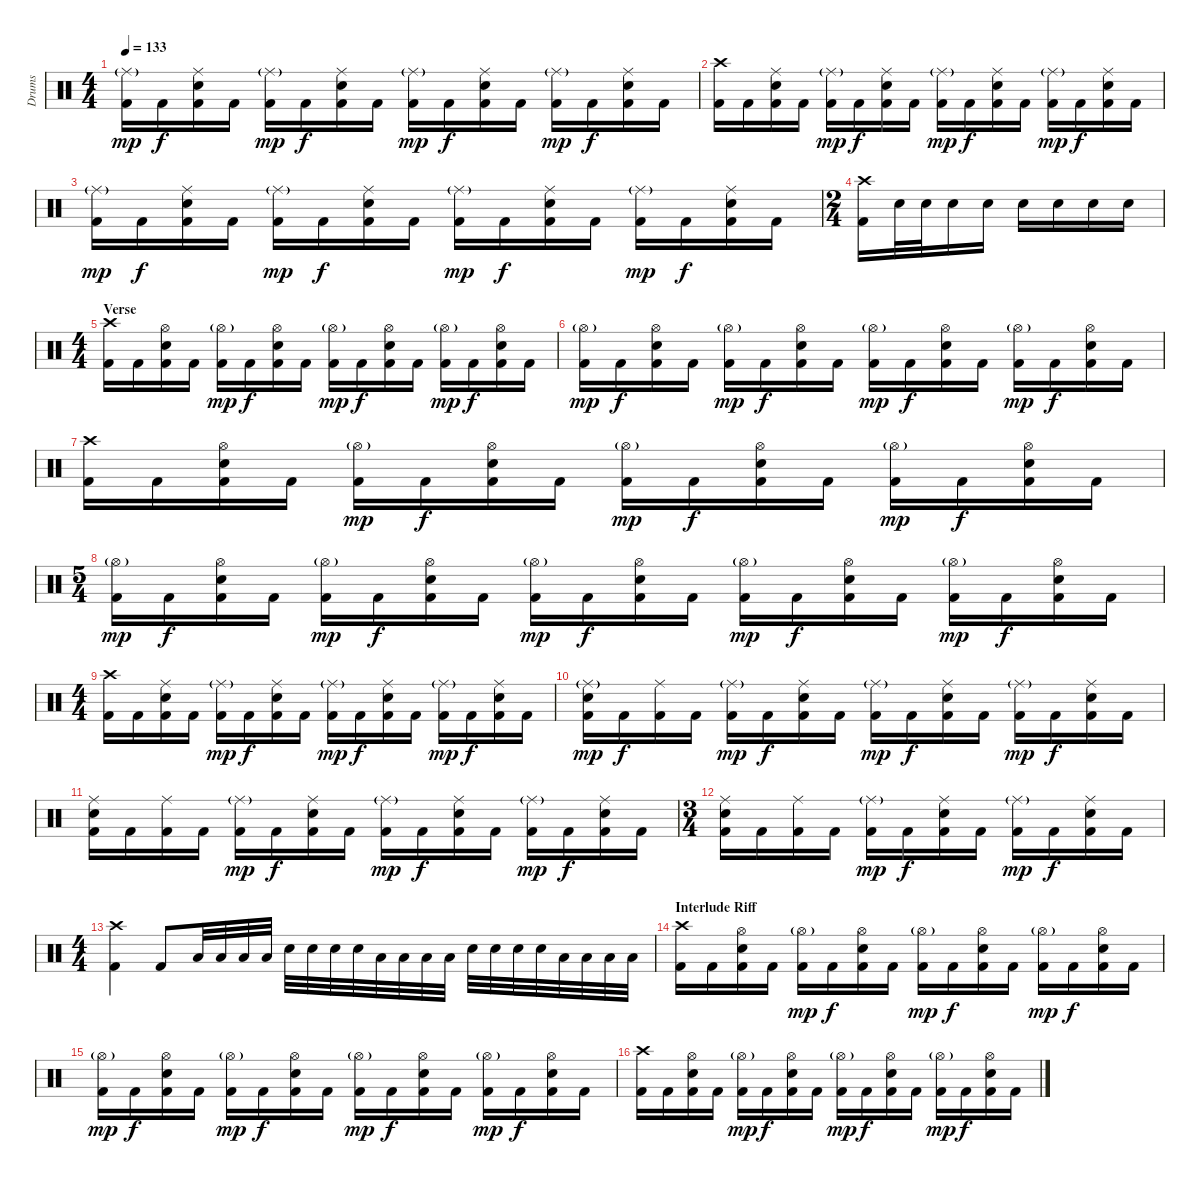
\track ("Drums" "Drums") {instrument percussion}
\staff {score}
\articulation defaults
\ts (4 4)
\tempo 133
\clef neutral
\ks c
("Ride (middle)"{g} "Kick (hit) 2").16{dy mp} "Kick (hit) 2".16{dy f} ("Ride (middle)" "Electric Snare (hit)" "Kick (hit) 2").16 "Kick (hit) 2".16 ("Ride (middle)"{g} "Kick (hit) 2").16{dy mp} "Kick (hit) 2".16{dy f} ("Ride (middle)" "Electric Snare (hit)" "Kick (hit) 2").16 "Kick (hit) 2".16 ("Ride (middle)"{g} "Kick (hit) 2").16{dy mp} "Kick (hit) 2".16{dy f} ("Ride (middle)" "Electric Snare (hit)" "Kick (hit) 2").16 "Kick (hit) 2".16 ("Ride (middle)"{g} "Kick (hit) 2").16{dy mp} "Kick (hit) 2".16{dy f} ("Ride (middle)" "Electric Snare (hit)" "Kick (hit) 2").16 "Kick (hit) 2".16 |
("Crash high (hit)" "Kick (hit) 2").16 "Kick (hit) 2".16 ("Ride (middle)" "Electric Snare (hit)" "Kick (hit) 2").16 "Kick (hit) 2".16 ("Ride (middle)"{g} "Kick (hit) 2").16{dy mp} "Kick (hit) 2".16{dy f} ("Ride (middle)" "Electric Snare (hit)" "Kick (hit) 2").16 "Kick (hit) 2".16 ("Ride (middle)"{g} "Kick (hit) 2").16{dy mp} "Kick (hit) 2".16{dy f} ("Ride (middle)" "Electric Snare (hit)" "Kick (hit) 2").16 "Kick (hit) 2".16 ("Ride (middle)"{g} "Kick (hit) 2").16{dy mp} "Kick (hit) 2".16{dy f} ("Ride (middle)" "Electric Snare (hit)" "Kick (hit) 2").16 "Kick (hit) 2".16 |
("Ride (middle)"{g} "Kick (hit) 2").16{dy mp} "Kick (hit) 2".16{dy f} ("Ride (middle)" "Electric Snare (hit)" "Kick (hit) 2").16 "Kick (hit) 2".16 ("Ride (middle)"{g} "Kick (hit) 2").16{dy mp} "Kick (hit) 2".16{dy f} ("Ride (middle)" "Electric Snare (hit)" "Kick (hit) 2").16 "Kick (hit) 2".16 ("Ride (middle)"{g} "Kick (hit) 2").16{dy mp} "Kick (hit) 2".16{dy f} ("Ride (middle)" "Electric Snare (hit)" "Kick (hit) 2").16 "Kick (hit) 2".16 ("Ride (middle)"{g} "Kick (hit) 2").16{dy mp} "Kick (hit) 2".16{dy f} ("Ride (middle)" "Electric Snare (hit)" "Kick (hit) 2").16 "Kick (hit) 2".16 |
\ts (2 4)
("Crash high (hit)" "Kick (hit) 2").16 "Electric Snare (hit)".32 "Electric Snare (hit)".32 "Electric Snare (hit)".16 "Electric Snare (hit)".16 "Electric Snare (hit)".16 "Electric Snare (hit)".16 "Electric Snare (hit)".16 "Electric Snare (hit)".16 |
\ts (4 4)
\section ("" "Verse")
("Crash high (hit)" "Kick (hit) 2").16 "Kick (hit) 2".16 ("Hi-Hat (open)" "Electric Snare (hit)" "Kick (hit) 2").16 "Kick (hit) 2".16 ("Hi-Hat (open)"{g} "Kick (hit) 2").16{dy mp} "Kick (hit) 2".16{dy f} ("Hi-Hat (open)" "Electric Snare (hit)" "Kick (hit) 2").16 "Kick (hit) 2".16 ("Hi-Hat (open)"{g} "Kick (hit) 2").16{dy mp} "Kick (hit) 2".16{dy f} ("Hi-Hat (open)" "Electric Snare (hit)" "Kick (hit) 2").16 "Kick (hit) 2".16 ("Hi-Hat (open)"{g} "Kick (hit) 2").16{dy mp} "Kick (hit) 2".16{dy f} ("Hi-Hat (open)" "Electric Snare (hit)" "Kick (hit) 2").16 "Kick (hit) 2".16 |
("Hi-Hat (open)"{g} "Kick (hit) 2").16{dy mp} "Kick (hit) 2".16{dy f} ("Hi-Hat (open)" "Electric Snare (hit)" "Kick (hit) 2").16 "Kick (hit) 2".16 ("Hi-Hat (open)"{g} "Kick (hit) 2").16{dy mp} "Kick (hit) 2".16{dy f} ("Hi-Hat (open)" "Electric Snare (hit)" "Kick (hit) 2").16 "Kick (hit) 2".16 ("Hi-Hat (open)"{g} "Kick (hit) 2").16{dy mp} "Kick (hit) 2".16{dy f} ("Hi-Hat (open)" "Electric Snare (hit)" "Kick (hit) 2").16 "Kick (hit) 2".16 ("Hi-Hat (open)"{g} "Kick (hit) 2").16{dy mp} "Kick (hit) 2".16{dy f} ("Hi-Hat (open)" "Electric Snare (hit)" "Kick (hit) 2").16 "Kick (hit) 2".16 |
("Crash high (hit)" "Kick (hit) 2").16 "Kick (hit) 2".16 ("Hi-Hat (open)" "Electric Snare (hit)" "Kick (hit) 2").16 "Kick (hit) 2".16 ("Hi-Hat (open)"{g} "Kick (hit) 2").16{dy mp} "Kick (hit) 2".16{dy f} ("Hi-Hat (open)" "Electric Snare (hit)" "Kick (hit) 2").16 "Kick (hit) 2".16 ("Hi-Hat (open)"{g} "Kick (hit) 2").16{dy mp} "Kick (hit) 2".16{dy f} ("Hi-Hat (open)" "Electric Snare (hit)" "Kick (hit) 2").16 "Kick (hit) 2".16 ("Hi-Hat (open)"{g} "Kick (hit) 2").16{dy mp} "Kick (hit) 2".16{dy f} ("Hi-Hat (open)" "Electric Snare (hit)" "Kick (hit) 2").16 "Kick (hit) 2".16 |
\ts (5 4)
("Hi-Hat (open)"{g} "Kick (hit) 2").16{dy mp} "Kick (hit) 2".16{dy f} ("Hi-Hat (open)" "Electric Snare (hit)" "Kick (hit) 2").16 "Kick (hit) 2".16 ("Hi-Hat (open)"{g} "Kick (hit) 2").16{dy mp} "Kick (hit) 2".16{dy f} ("Hi-Hat (open)" "Electric Snare (hit)" "Kick (hit) 2").16 "Kick (hit) 2".16 ("Hi-Hat (open)"{g} "Kick (hit) 2").16{dy mp} "Kick (hit) 2".16{dy f} ("Hi-Hat (open)" "Electric Snare (hit)" "Kick (hit) 2").16 "Kick (hit) 2".16 ("Hi-Hat (open)"{g} "Kick (hit) 2").16{dy mp} "Kick (hit) 2".16{dy f} ("Hi-Hat (open)" "Electric Snare (hit)" "Kick (hit) 2").16 "Kick (hit) 2".16 ("Hi-Hat (open)"{g} "Kick (hit) 2").16{dy mp} "Kick (hit) 2".16{dy f} ("Hi-Hat (open)" "Electric Snare (hit)" "Kick (hit) 2").16 "Kick (hit) 2".16 |
\ts (4 4)
("Crash high (hit)" "Kick (hit) 2").16 "Kick (hit) 2".16 ("Ride (middle)" "Electric Snare (hit)" "Kick (hit) 2").16 "Kick (hit) 2".16 ("Ride (middle)"{g} "Kick (hit) 2").16{dy mp} "Kick (hit) 2".16{dy f} ("Ride (middle)" "Electric Snare (hit)" "Kick (hit) 2").16 "Kick (hit) 2".16 ("Ride (middle)"{g} "Kick (hit) 2").16{dy mp} "Kick (hit) 2".16{dy f} ("Ride (middle)" "Electric Snare (hit)" "Kick (hit) 2").16 "Kick (hit) 2".16 ("Ride (middle)"{g} "Kick (hit) 2").16{dy mp} "Kick (hit) 2".16{dy f} ("Ride (middle)" "Electric Snare (hit)" "Kick (hit) 2").16 "Kick (hit) 2".16 |
("Ride (middle)"{g} "Electric Snare (hit)" "Kick (hit) 2").16{dy mp} "Kick (hit) 2".16{dy f} ("Ride (middle)" "Kick (hit) 2").16 "Kick (hit) 2".16 ("Ride (middle)"{g} "Kick (hit) 2").16{dy mp} "Kick (hit) 2".16{dy f} ("Ride (middle)" "Electric Snare (hit)" "Kick (hit) 2").16 "Kick (hit) 2".16 ("Ride (middle)"{g} "Kick (hit) 2").16{dy mp} "Kick (hit) 2".16{dy f} ("Ride (middle)" "Electric Snare (hit)" "Kick (hit) 2").16 "Kick (hit) 2".16 ("Ride (middle)"{g} "Kick (hit) 2").16{dy mp} "Kick (hit) 2".16{dy f} ("Ride (middle)" "Electric Snare (hit)" "Kick (hit) 2").16 "Kick (hit) 2".16 |
("Ride (middle)" "Electric Snare (hit)" "Kick (hit) 2").16 "Kick (hit) 2".16 ("Ride (middle)" "Kick (hit) 2").16 "Kick (hit) 2".16 ("Ride (middle)"{g} "Kick (hit) 2").16{dy mp} "Kick (hit) 2".16{dy f} ("Ride (middle)" "Electric Snare (hit)" "Kick (hit) 2").16 "Kick (hit) 2".16 ("Ride (middle)"{g} "Kick (hit) 2").16{dy mp} "Kick (hit) 2".16{dy f} ("Ride (middle)" "Electric Snare (hit)" "Kick (hit) 2").16 "Kick (hit) 2".16 ("Ride (middle)"{g} "Kick (hit) 2").16{dy mp} "Kick (hit) 2".16{dy f} ("Ride (middle)" "Electric Snare (hit)" "Kick (hit) 2").16 "Kick (hit) 2".16 |
\ts (3 4)
("Ride (middle)" "Electric Snare (hit)" "Kick (hit) 2").16 "Kick (hit) 2".16 ("Ride (middle)" "Kick (hit) 2").16 "Kick (hit) 2".16 ("Ride (middle)"{g} "Kick (hit) 2").16{dy mp} "Kick (hit) 2".16{dy f} ("Ride (middle)" "Electric Snare (hit)" "Kick (hit) 2").16 "Kick (hit) 2".16 ("Ride (middle)"{g} "Kick (hit) 2").16{dy mp} "Kick (hit) 2".16{dy f} ("Ride (middle)" "Electric Snare (hit)" "Kick (hit) 2").16 "Kick (hit) 2".16 |
\ts (4 4)
("Crash high (hit)" "Kick (hit) 2").4 "Kick (hit) 2".8 "Low Tom (hit)".32 "Low Tom (hit)".32 "Low Tom (hit)".32 "Low Tom (hit)".32 "Electric Snare (hit)".32 "Electric Snare (hit)".32 "Electric Snare (hit)".32 "Electric Snare (hit)".32 "Low Tom (hit)".32 "Low Tom (hit)".32 "Low Tom (hit)".32 "Low Tom (hit)".32 "Electric Snare (hit)".32 "Electric Snare (hit)".32 "Electric Snare (hit)".32 "Electric Snare (hit)".32 "Low Tom (hit)".32 "Low Tom (hit)".32 "Low Tom (hit)".32 "Low Tom (hit)".32 |
\section ("" "Interlude Riff")
("Crash high (hit)" "Kick (hit) 2").16 "Kick (hit) 2".16 ("Hi-Hat (open)" "Electric Snare (hit)" "Kick (hit) 2").16 "Kick (hit) 2".16 ("Hi-Hat (open)"{g} "Kick (hit) 2").16{dy mp} "Kick (hit) 2".16{dy f} ("Hi-Hat (open)" "Electric Snare (hit)" "Kick (hit) 2").16 "Kick (hit) 2".16 ("Hi-Hat (open)"{g} "Kick (hit) 2").16{dy mp} "Kick (hit) 2".16{dy f} ("Hi-Hat (open)" "Electric Snare (hit)" "Kick (hit) 2").16 "Kick (hit) 2".16 ("Hi-Hat (open)"{g} "Kick (hit) 2").16{dy mp} "Kick (hit) 2".16{dy f} ("Hi-Hat (open)" "Electric Snare (hit)" "Kick (hit) 2").16 "Kick (hit) 2".16 |
("Hi-Hat (open)"{g} "Kick (hit) 2").16{dy mp} "Kick (hit) 2".16{dy f} ("Hi-Hat (open)" "Electric Snare (hit)" "Kick (hit) 2").16 "Kick (hit) 2".16 ("Hi-Hat (open)"{g} "Kick (hit) 2").16{dy mp} "Kick (hit) 2".16{dy f} ("Hi-Hat (open)" "Electric Snare (hit)" "Kick (hit) 2").16 "Kick (hit) 2".16 ("Hi-Hat (open)"{g} "Kick (hit) 2").16{dy mp} "Kick (hit) 2".16{dy f} ("Hi-Hat (open)" "Electric Snare (hit)" "Kick (hit) 2").16 "Kick (hit) 2".16 ("Hi-Hat (open)"{g} "Kick (hit) 2").16{dy mp} "Kick (hit) 2".16{dy f} ("Hi-Hat (open)" "Electric Snare (hit)" "Kick (hit) 2").16 "Kick (hit) 2".16 |
("Crash high (hit)" "Kick (hit) 2").16 "Kick (hit) 2".16 ("Hi-Hat (open)" "Electric Snare (hit)" "Kick (hit) 2").16 "Kick (hit) 2".16 ("Hi-Hat (open)"{g} "Kick (hit) 2").16{dy mp} "Kick (hit) 2".16{dy f} ("Hi-Hat (open)" "Electric Snare (hit)" "Kick (hit) 2").16 "Kick (hit) 2".16 ("Hi-Hat (open)"{g} "Kick (hit) 2").16{dy mp} "Kick (hit) 2".16{dy f} ("Hi-Hat (open)" "Electric Snare (hit)" "Kick (hit) 2").16 "Kick (hit) 2".16 ("Hi-Hat (open)"{g} "Kick (hit) 2").16{dy mp} "Kick (hit) 2".16{dy f} ("Hi-Hat (open)" "Electric Snare (hit)" "Kick (hit) 2").16 "Kick (hit) 2".16
